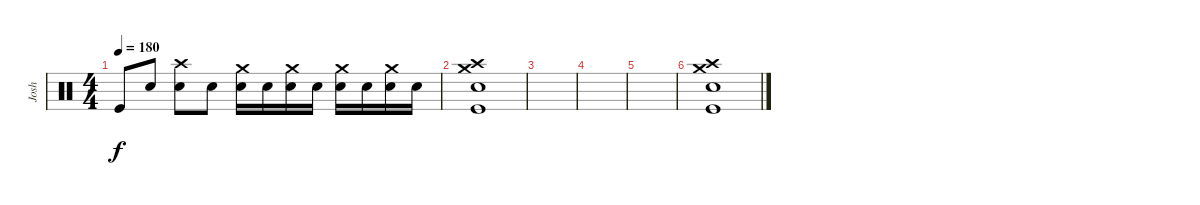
\track ("Josh" "Josh") {instrument percussion}
\staff {score}
\articulation defaults
\ts (4 4)
\tempo 180
\clef neutral
\ks c "Kick (hit)".8{dy f} "Electric Snare (hit)".8
("Electric Snare (hit)" "Crash high (hit)").8 "Electric Snare (hit)".8 ("Electric Snare (hit)" "Crash medium (hit)").16 "Electric Snare (hit)".16 ("Electric Snare (hit)" "Crash medium (hit)").16 "Electric Snare (hit)".16 ("Electric Snare (hit)" "Crash medium (hit)").16 "Electric Snare (hit)".16 ("Electric Snare (hit)" "Crash medium (hit)").16 "Electric Snare (hit)".16 |
("Kick (hit)" "Electric Snare (hit)" "Crash medium (hit)" "Crash high (hit)").1 |
|
|
|
("Kick (hit)" "Electric Snare (hit)" "Crash medium (hit)" "Crash high (hit)").1
